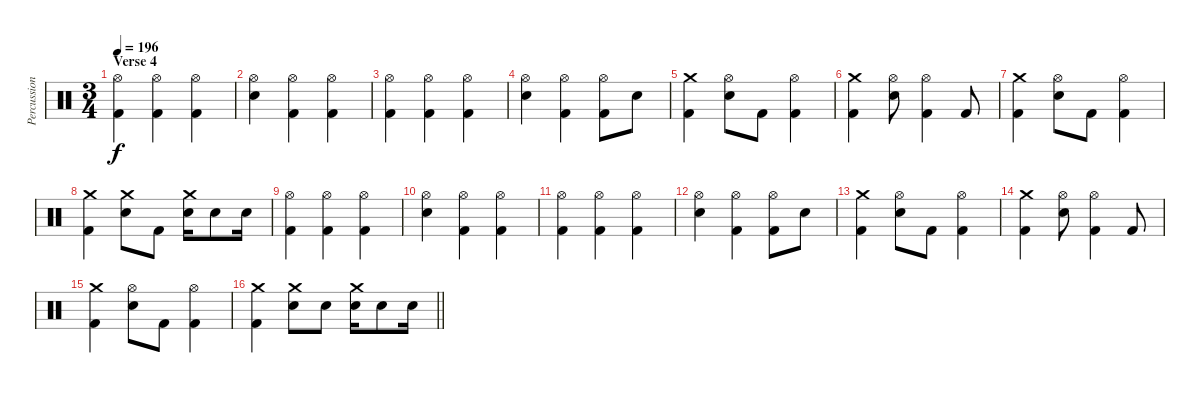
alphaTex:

\track ("Percussion" "Percussion") {instrument percussion}
\staff {score}
\articulation defaults
\ts (3 4)
\section ("" "Verse 4")
\tempo 196
\clef neutral
\ks c
("Hi-Hat (open)" "Kick (hit) 2").4{dy f} ("Hi-Hat (open)" "Kick (hit) 2").4 ("Hi-Hat (open)" "Kick (hit) 2").4 |
("Hi-Hat (open)" "Electric Snare (hit)").4 ("Hi-Hat (open)" "Kick (hit) 2").4 ("Hi-Hat (open)" "Kick (hit) 2").4 |
("Hi-Hat (open)" "Kick (hit) 2").4 ("Hi-Hat (open)" "Kick (hit) 2").4 ("Hi-Hat (open)" "Kick (hit) 2").4 |
("Hi-Hat (open)" "Electric Snare (hit)").4 ("Hi-Hat (open)" "Kick (hit) 2").4 ("Hi-Hat (open)" "Kick (hit) 2").8 "Electric Snare (hit)".8 |
("Crash medium (hit)" "Kick (hit) 2").4 ("Hi-Hat (open)" "Electric Snare (hit)").8 "Kick (hit) 2".8 ("Hi-Hat (open)" "Kick (hit) 2").4 |
("Crash medium (hit)" "Kick (hit) 2").4 ("Hi-Hat (open)" "Electric Snare (hit)").8 ("Hi-Hat (open)" "Kick (hit) 2").4 "Kick (hit) 2".8 |
("Crash medium (hit)" "Kick (hit) 2").4 ("Hi-Hat (open)" "Electric Snare (hit)").8 "Kick (hit) 2".8 ("Hi-Hat (open)" "Kick (hit) 2").4 |
("Crash medium (hit)" "Kick (hit) 2").4 ("Crash medium (hit)" "Electric Snare (hit)").8 "Kick (hit) 2".8 ("Crash medium (hit)" "Electric Snare (hit)").16 "Electric Snare (hit)".8 "Electric Snare (hit)".16 |
("Hi-Hat (open)" "Kick (hit) 2").4 ("Hi-Hat (open)" "Kick (hit) 2").4 ("Hi-Hat (open)" "Kick (hit) 2").4 |
("Hi-Hat (open)" "Electric Snare (hit)").4 ("Hi-Hat (open)" "Kick (hit) 2").4 ("Hi-Hat (open)" "Kick (hit) 2").4 |
("Hi-Hat (open)" "Kick (hit) 2").4 ("Hi-Hat (open)" "Kick (hit) 2").4 ("Hi-Hat (open)" "Kick (hit) 2").4 |
("Hi-Hat (open)" "Electric Snare (hit)").4 ("Hi-Hat (open)" "Kick (hit) 2").4 ("Hi-Hat (open)" "Kick (hit) 2").8 "Electric Snare (hit)".8 |
("Crash medium (hit)" "Kick (hit) 2").4 ("Hi-Hat (open)" "Electric Snare (hit)").8 "Kick (hit) 2".8 ("Hi-Hat (open)" "Kick (hit) 2").4 |
("Crash medium (hit)" "Kick (hit) 2").4 ("Hi-Hat (open)" "Electric Snare (hit)").8 ("Hi-Hat (open)" "Kick (hit) 2").4 "Kick (hit) 2".8 |
("Crash medium (hit)" "Kick (hit) 2").4 ("Hi-Hat (open)" "Electric Snare (hit)").8 "Kick (hit) 2".8 ("Hi-Hat (open)" "Kick (hit) 2").4 |
\barLineRight lightlight
("Crash medium (hit)" "Kick (hit) 2").4 ("Crash medium (hit)" "Electric Snare (hit)").8 "Electric Snare (hit)".8 ("Crash medium (hit)" "Electric Snare (hit)").16 "Electric Snare (hit)".8 "Electric Snare (hit)".16
